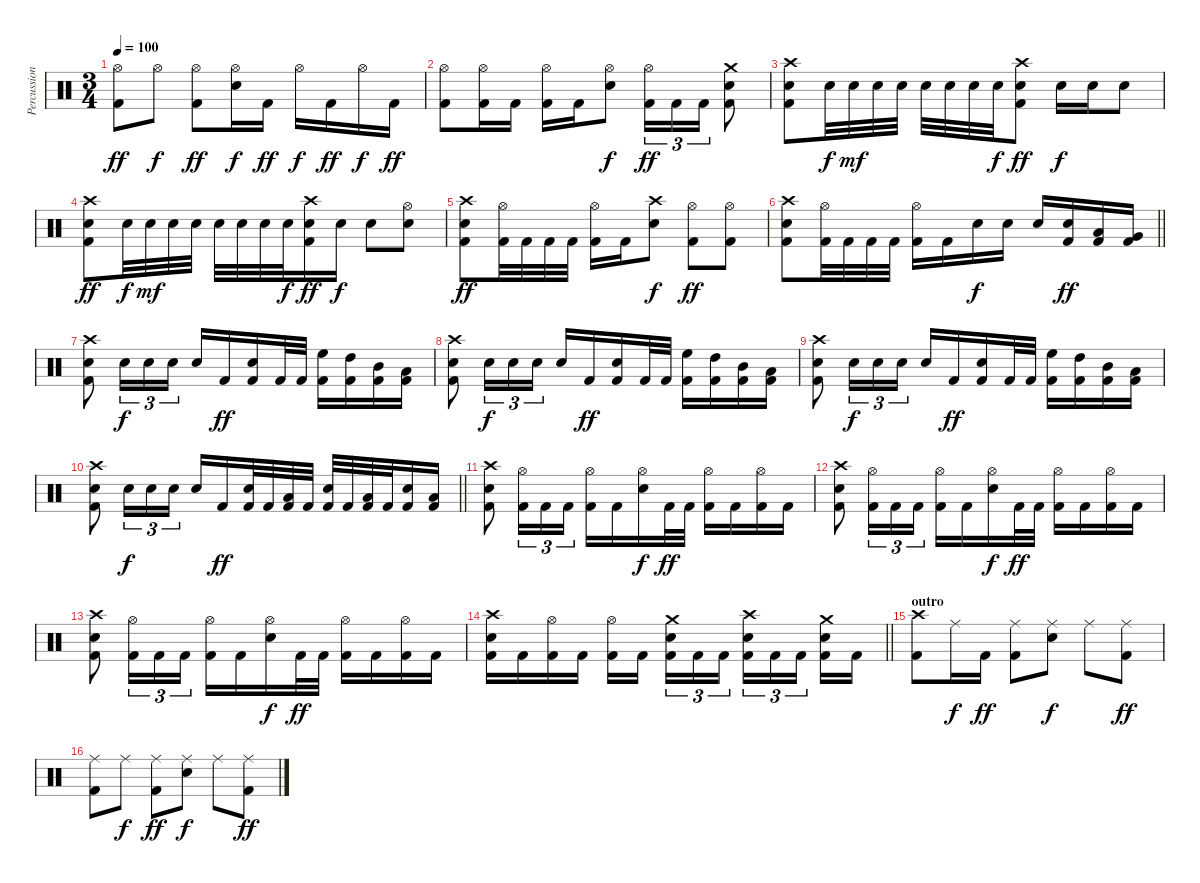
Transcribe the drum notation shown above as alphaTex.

\track ("Percussion" "Percussion") {instrument percussion}
\staff {score}
\articulation defaults
\ts (3 4)
\tempo 100
\clef neutral
\ks c
("Hi-Hat (open)" "Kick (hit) 2").8{dy ff} "Hi-Hat (open)".8{dy f} ("Hi-Hat (open)" "Kick (hit) 2").8{dy ff} ("Hi-Hat (open)" "Snare (hit) 2").16{dy f} "Kick (hit) 2".16{dy ff} "Hi-Hat (open)".16{dy f} "Kick (hit) 2".16{dy ff} "Hi-Hat (open)".16{dy f} "Kick (hit) 2".16{dy ff} |
("Hi-Hat (open)" "Kick (hit) 2").8 ("Hi-Hat (open)" "Kick (hit) 2").16 "Kick (hit) 2".16 ("Hi-Hat (open)" "Kick (hit) 2").16 "Kick (hit) 2".16 ("Hi-Hat (open)" "Snare (hit) 2").8{dy f} ("Hi-Hat (open)" "Kick (hit) 2").16{tu (3 2) dy ff} "Kick (hit) 2".16{tu (3 2)} "Kick (hit) 2".16{tu (3 2)} ("Crash medium (hit)" "Snare (hit) 2" "Kick (hit) 2").8 |
("Crash high (hit)" "Snare (hit) 2" "Kick (hit) 2").8 "Snare (hit) 2".32{dy f} "Snare (hit) 2".32{dy mf} "Snare (hit) 2".32 "Snare (hit) 2".32 "Snare (hit) 2".32 "Snare (hit) 2".32 "Snare (hit) 2".32 "Snare (hit) 2".32{dy f} ("Crash high (hit)" "Snare (hit) 2" "Kick (hit) 2").8{dy ff} "Snare (hit) 2".16{dy f} "Snare (hit) 2".16 "Snare (hit) 2".8 |
("Crash high (hit)" "Snare (hit) 2" "Kick (hit) 2").8{dy ff} "Snare (hit) 2".32{dy f} "Snare (hit) 2".32{dy mf} "Snare (hit) 2".32 "Snare (hit) 2".32 "Snare (hit) 2".32 "Snare (hit) 2".32 "Snare (hit) 2".32 "Snare (hit) 2".32{dy f} ("Crash high (hit)" "Snare (hit) 2" "Kick (hit) 2").16{dy ff} "Snare (hit) 2".16{dy f} "Snare (hit) 2".8 ("Hi-Hat (open)" "Snare (hit) 2").8 |
("Crash high (hit)" "Snare (hit) 2" "Kick (hit) 2").8{dy ff} ("Hi-Hat (open)" "Kick (hit) 2").32 "Kick (hit) 2".32 "Kick (hit) 2".32 "Kick (hit) 2".32 ("Hi-Hat (open)" "Kick (hit) 2").16 "Kick (hit) 2".16 ("Crash high (hit)" "Snare (hit) 2").8{dy f} ("Hi-Hat (open)" "Kick (hit) 2").8{dy ff} ("Hi-Hat (open)" "Kick (hit) 2").8 |
\barLineRight lightlight
("Crash high (hit)" "Snare (hit) 2" "Kick (hit) 2").8 ("Hi-Hat (open)" "Kick (hit) 2").32 "Kick (hit) 2".32 "Kick (hit) 2".32 "Kick (hit) 2".32 ("Hi-Hat (open)" "Kick (hit) 2").16 "Kick (hit) 2".16 "Snare (hit) 2".16{dy f} "Snare (hit) 2".16 "Snare (hit) 2".16 ("Snare (hit) 2" "Kick (hit) 2").16{dy ff} ("Low Tom (hit)" "Kick (hit) 2").16 ("Very Low Tom (hit)" "Kick (hit) 2").16 |
\section ("" "")
("Crash high (hit)" "Snare (hit) 2" "Kick (hit) 2").8 "Snare (hit) 2".16{tu (3 2) dy f} "Snare (hit) 2".16{tu (3 2)} "Snare (hit) 2".16{tu (3 2)} "Snare (hit) 2".16 "Kick (hit) 2".16{dy ff} ("Snare (hit) 2" "Kick (hit) 2").16 "Kick (hit) 2".32 "Kick (hit) 2".32 ("High Floor Tom (hit)" "Kick (hit) 2").16 ("High Tom (hit)" "Kick (hit) 2").16 ("Mid Tom (hit)" "Kick (hit) 2").16 ("Low Tom (hit)" "Kick (hit) 2").16 |
("Crash high (hit)" "Snare (hit) 2" "Kick (hit) 2").8 "Snare (hit) 2".16{tu (3 2) dy f} "Snare (hit) 2".16{tu (3 2)} "Snare (hit) 2".16{tu (3 2)} "Snare (hit) 2".16 "Kick (hit) 2".16{dy ff} ("Snare (hit) 2" "Kick (hit) 2").16 "Kick (hit) 2".32 "Kick (hit) 2".32 ("High Floor Tom (hit)" "Kick (hit) 2").16 ("High Tom (hit)" "Kick (hit) 2").16 ("Mid Tom (hit)" "Kick (hit) 2").16 ("Low Tom (hit)" "Kick (hit) 2").16 |
("Crash high (hit)" "Snare (hit) 2" "Kick (hit) 2").8 "Snare (hit) 2".16{tu (3 2) dy f} "Snare (hit) 2".16{tu (3 2)} "Snare (hit) 2".16{tu (3 2)} "Snare (hit) 2".16 "Kick (hit) 2".16{dy ff} ("Snare (hit) 2" "Kick (hit) 2").16 "Kick (hit) 2".32 "Kick (hit) 2".32 ("High Floor Tom (hit)" "Kick (hit) 2").16 ("High Tom (hit)" "Kick (hit) 2").16 ("Mid Tom (hit)" "Kick (hit) 2").16 ("Low Tom (hit)" "Kick (hit) 2").16 |
\barLineRight lightlight
("Crash high (hit)" "Snare (hit) 2" "Kick (hit) 2").8 "Snare (hit) 2".16{tu (3 2) dy f} "Snare (hit) 2".16{tu (3 2)} "Snare (hit) 2".16{tu (3 2)} "Snare (hit) 2".16 "Kick (hit) 2".16{dy ff} ("Snare (hit) 2" "Kick (hit) 2").32 "Kick (hit) 2".32 ("Low Tom (hit)" "Kick (hit) 2").32 "Kick (hit) 2".32 ("Snare (hit) 2" "Kick (hit) 2").32 "Kick (hit) 2".32 ("Low Tom (hit)" "Kick (hit) 2").32 "Kick (hit) 2".32 ("Snare (hit) 2" "Kick (hit) 2").16 ("Low Tom (hit)" "Kick (hit) 2").16 |
("Crash high (hit)" "Snare (hit) 2" "Kick (hit) 2").8 ("Hi-Hat (open)" "Kick (hit) 2").16{tu (3 2)} "Kick (hit) 2".16{tu (3 2)} "Kick (hit) 2".16{tu (3 2)} ("Hi-Hat (open)" "Kick (hit) 2").16 "Kick (hit) 2".16 ("Hi-Hat (open)" "Snare (hit) 2").16{dy f} "Kick (hit) 2".32{dy ff} "Kick (hit) 2".32 ("Hi-Hat (open)" "Kick (hit) 2").16 "Kick (hit) 2".16 ("Hi-Hat (open)" "Kick (hit) 2").16 "Kick (hit) 2".16 |
("Crash high (hit)" "Snare (hit) 2" "Kick (hit) 2").8 ("Hi-Hat (open)" "Kick (hit) 2").16{tu (3 2)} "Kick (hit) 2".16{tu (3 2)} "Kick (hit) 2".16{tu (3 2)} ("Hi-Hat (open)" "Kick (hit) 2").16 "Kick (hit) 2".16 ("Hi-Hat (open)" "Snare (hit) 2").16{dy f} "Kick (hit) 2".32{dy ff} "Kick (hit) 2".32 ("Hi-Hat (open)" "Kick (hit) 2").16 "Kick (hit) 2".16 ("Hi-Hat (open)" "Kick (hit) 2").16 "Kick (hit) 2".16 |
("Crash high (hit)" "Snare (hit) 2" "Kick (hit) 2").8 ("Hi-Hat (open)" "Kick (hit) 2").16{tu (3 2)} "Kick (hit) 2".16{tu (3 2)} "Kick (hit) 2".16{tu (3 2)} ("Hi-Hat (open)" "Kick (hit) 2").16 "Kick (hit) 2".16 ("Hi-Hat (open)" "Snare (hit) 2").16{dy f} "Kick (hit) 2".32{dy ff} "Kick (hit) 2".32 ("Hi-Hat (open)" "Kick (hit) 2").16 "Kick (hit) 2".16 ("Hi-Hat (open)" "Kick (hit) 2").16 "Kick (hit) 2".16 |
\barLineRight lightlight
("Crash high (hit)" "Snare (hit) 2" "Kick (hit) 2").16 "Kick (hit) 2".16 ("Hi-Hat (open)" "Kick (hit) 2").16 "Kick (hit) 2".16 ("Hi-Hat (open)" "Kick (hit) 2").16 "Kick (hit) 2".16{beam splitsecondary} ("Crash medium (hit)" "Snare (hit) 2" "Kick (hit) 2").16{tu (3 2)} "Kick (hit) 2".16{tu (3 2)} "Kick (hit) 2".16{tu (3 2)} ("Crash high (hit)" "Snare (hit) 2" "Kick (hit) 2").16{tu (3 2)} "Kick (hit) 2".16{tu (3 2)} "Kick (hit) 2".16{tu (3 2) beam splitsecondary} ("Crash medium (hit)" "Snare (hit) 2" "Kick (hit) 2").16 "Kick (hit) 2".16 |
\section ("" "outro")
("Crash high (hit)" "Kick (hit) 2").8 "Ride (middle)".16{dy f} "Kick (hit) 2".16{dy ff} ("Ride (middle)" "Kick (hit) 2").8 ("Ride (middle)" "Snare (hit) 2").8{dy f} "Ride (middle)".8 ("Ride (middle)" "Kick (hit) 2").8{dy ff} |
("Ride (middle)" "Kick (hit) 2").8 "Ride (middle)".8{dy f} ("Ride (middle)" "Kick (hit) 2").8{dy ff} ("Ride (middle)" "Snare (hit) 2").8{dy f} "Ride (middle)".8 ("Ride (middle)" "Kick (hit) 2").8{dy ff}
